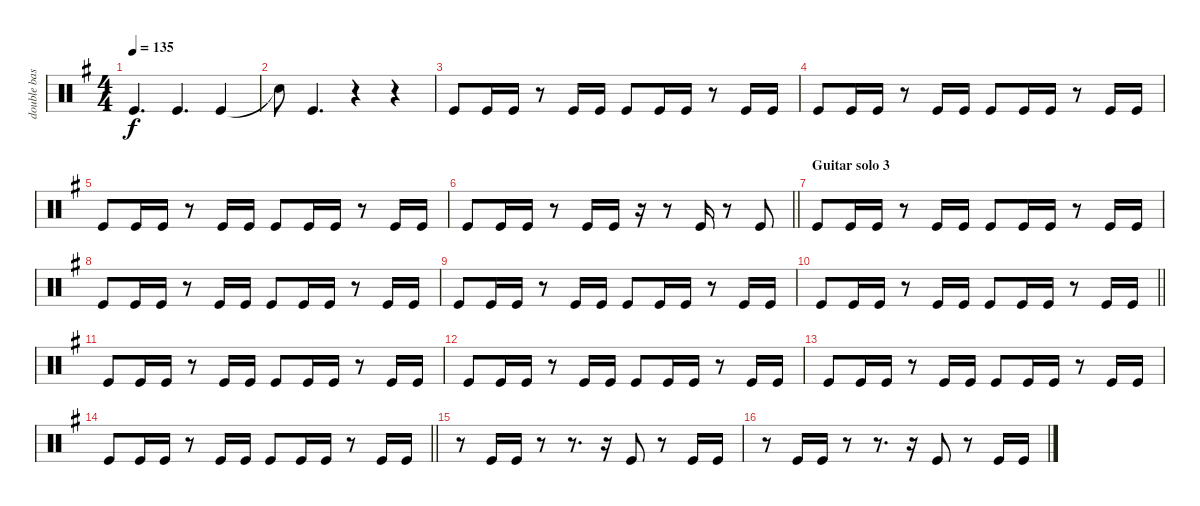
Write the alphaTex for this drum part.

\track ("double bass" "double bas") {instrument percussion}
\staff {score}
\articulation defaults
\ts (4 4)
\tempo 135
\clef neutral
\ks eminor "Kick (hit)".4{d dy f} "Kick (hit)".4{d} "Kick (hit)".4
|
"Snare (hit) 2"{t}.8 "Kick (hit)".4{d} r.4 r.4 |
"Kick (hit)".8 "Kick (hit)".16 "Kick (hit)".16 r.8 "Kick (hit)".16 "Kick (hit)".16 "Kick (hit)".8 "Kick (hit)".16 "Kick (hit)".16 r.8 "Kick (hit)".16 "Kick (hit)".16 |
"Kick (hit)".8 "Kick (hit)".16 "Kick (hit)".16 r.8 "Kick (hit)".16 "Kick (hit)".16 "Kick (hit)".8 "Kick (hit)".16 "Kick (hit)".16 r.8 "Kick (hit)".16 "Kick (hit)".16 |
"Kick (hit)".8 "Kick (hit)".16 "Kick (hit)".16 r.8 "Kick (hit)".16 "Kick (hit)".16 "Kick (hit)".8 "Kick (hit)".16 "Kick (hit)".16 r.8 "Kick (hit)".16 "Kick (hit)".16 |
\barLineRight lightlight "Kick (hit)".8 "Kick (hit)".16 "Kick (hit)".16
r.8 "Kick (hit)".16 "Kick (hit)".16 r.16 r.8 "Kick (hit)".16 r.8 "Kick (hit)".8 |
\section ("" "Guitar solo 3")
"Kick (hit)".8 "Kick (hit)".16 "Kick (hit)".16 r.8 "Kick (hit)".16 "Kick (hit)".16 "Kick (hit)".8 "Kick (hit)".16 "Kick (hit)".16 r.8 "Kick (hit)".16 "Kick (hit)".16 |
"Kick (hit)".8 "Kick (hit)".16 "Kick (hit)".16 r.8 "Kick (hit)".16 "Kick (hit)".16 "Kick (hit)".8 "Kick (hit)".16 "Kick (hit)".16 r.8 "Kick (hit)".16 "Kick (hit)".16 |
"Kick (hit)".8 "Kick (hit)".16 "Kick (hit)".16 r.8 "Kick (hit)".16 "Kick (hit)".16 "Kick (hit)".8 "Kick (hit)".16 "Kick (hit)".16 r.8 "Kick (hit)".16 "Kick (hit)".16 |
\barLineRight lightlight "Kick (hit)".8 "Kick (hit)".16 "Kick (hit)".16
r.8 "Kick (hit)".16 "Kick (hit)".16 "Kick (hit)".8 "Kick (hit)".16 "Kick (hit)".16 r.8 "Kick (hit)".16 "Kick (hit)".16 |
"Kick (hit)".8 "Kick (hit)".16 "Kick (hit)".16 r.8 "Kick (hit)".16 "Kick (hit)".16 "Kick (hit)".8 "Kick (hit)".16 "Kick (hit)".16 r.8 "Kick (hit)".16 "Kick (hit)".16 |
"Kick (hit)".8 "Kick (hit)".16 "Kick (hit)".16 r.8 "Kick (hit)".16 "Kick (hit)".16 "Kick (hit)".8 "Kick (hit)".16 "Kick (hit)".16 r.8 "Kick (hit)".16 "Kick (hit)".16 |
"Kick (hit)".8 "Kick (hit)".16 "Kick (hit)".16 r.8 "Kick (hit)".16 "Kick (hit)".16 "Kick (hit)".8 "Kick (hit)".16 "Kick (hit)".16 r.8 "Kick (hit)".16 "Kick (hit)".16 |
\barLineRight lightlight "Kick (hit)".8 "Kick (hit)".16 "Kick (hit)".16
r.8 "Kick (hit)".16 "Kick (hit)".16 "Kick (hit)".8 "Kick (hit)".16 "Kick (hit)".16 r.8 "Kick (hit)".16 "Kick (hit)".16 |
r.8 "Kick (hit)".16 "Kick (hit)".16 r.8 r.8{d} r.16 "Kick (hit)".8 r.8 "Kick (hit)".16 "Kick (hit)".16 |
r.8 "Kick (hit)".16 "Kick (hit)".16 r.8 r.8{d} r.16 "Kick (hit)".8 r.8 "Kick (hit)".16 "Kick (hit)".16
